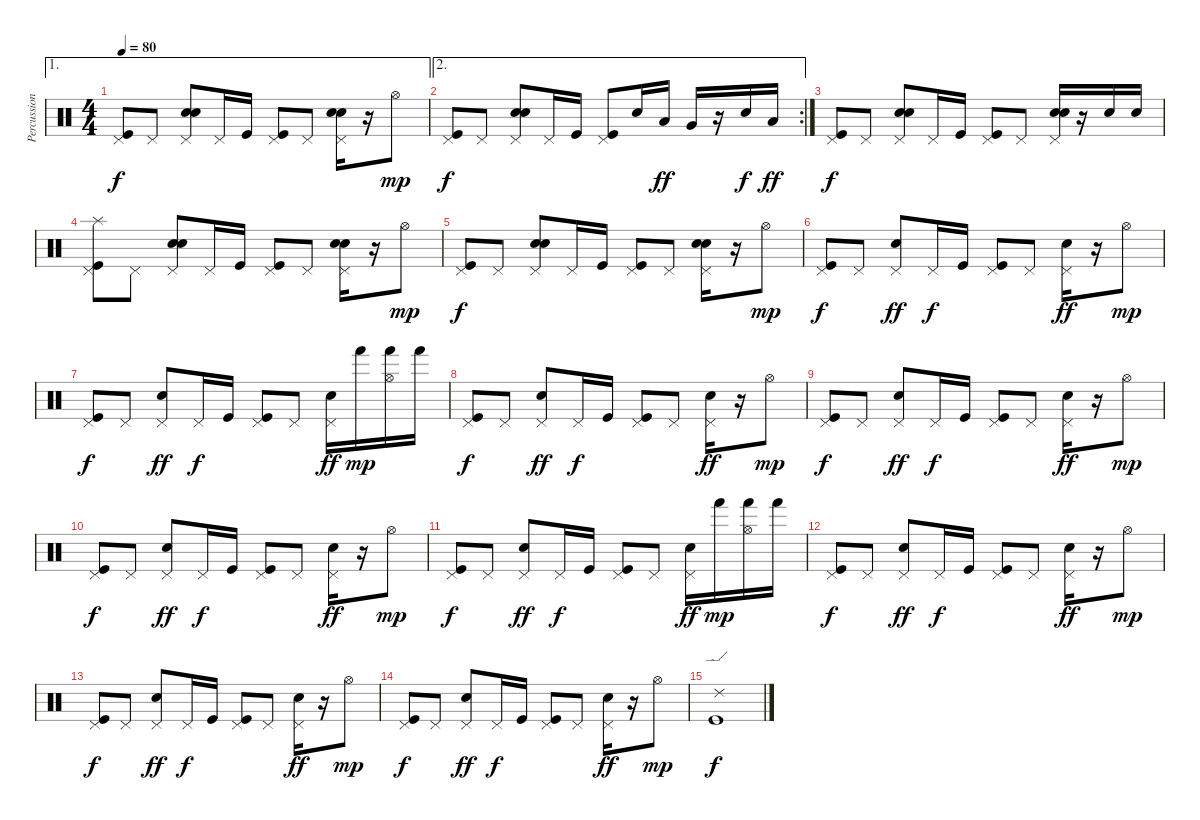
\track ("Percussion" "Percussion") {instrument percussion}
\staff {score}
\articulation defaults
\ae 1
\ts (4 4)
\tempo 80
\clef neutral
\ks c
("Pedal Hi-Hat (hit)" "Kick (hit)").8{dy f} "Pedal Hi-Hat (hit)".8 ("Pedal Hi-Hat (hit)" "Hand Clap (hit)" "Electric Snare (hit)").8 "Pedal Hi-Hat (hit)".16 "Kick (hit)".16 ("Pedal Hi-Hat (hit)" "Kick (hit)").8 "Pedal Hi-Hat (hit)".8 ("Pedal Hi-Hat (hit)" "Hand Clap (hit)" "Electric Snare (hit)").16 r.16 "Hi-Hat (open)".8{dy mp} |
\ae 2
\rc 2
("Pedal Hi-Hat (hit)" "Kick (hit)").8{dy f} "Pedal Hi-Hat (hit)".8 ("Pedal Hi-Hat (hit)" "Hand Clap (hit)" "Electric Snare (hit)").8 "Pedal Hi-Hat (hit)".16 "Kick (hit)".16 ("Pedal Hi-Hat (hit)" "Kick (hit)").8 "Electric Snare (hit)".16 "Low Tom (hit)".16{dy ff} "Very Low Tom (hit)".16 r.16 "Electric Snare (hit)".16{dy f} "Low Tom (hit)".16{dy ff} |
("Pedal Hi-Hat (hit)" "Kick (hit)").8{dy f} "Pedal Hi-Hat (hit)".8 ("Pedal Hi-Hat (hit)" "Hand Clap (hit)" "Electric Snare (hit)").8 "Pedal Hi-Hat (hit)".16 "Kick (hit)".16 ("Pedal Hi-Hat (hit)" "Kick (hit)").8 "Pedal Hi-Hat (hit)".8 ("Pedal Hi-Hat (hit)" "Hand Clap (hit)" "Electric Snare (hit)").16 r.16 "Electric Snare (hit)".16 "Electric Snare (hit)".16 |
("Pedal Hi-Hat (hit)" "Kick (hit)" "Splash (hit)").8 "Pedal Hi-Hat (hit)".8 ("Pedal Hi-Hat (hit)" "Hand Clap (hit)" "Electric Snare (hit)").8 "Pedal Hi-Hat (hit)".16 "Kick (hit)".16 ("Pedal Hi-Hat (hit)" "Kick (hit)").8 "Pedal Hi-Hat (hit)".8 ("Pedal Hi-Hat (hit)" "Hand Clap (hit)" "Electric Snare (hit)").16 r.16 "Hi-Hat (open)".8{dy mp} |
("Pedal Hi-Hat (hit)" "Kick (hit)").8{dy f} "Pedal Hi-Hat (hit)".8 ("Pedal Hi-Hat (hit)" "Hand Clap (hit)" "Electric Snare (hit)").8 "Pedal Hi-Hat (hit)".16 "Kick (hit)".16 ("Pedal Hi-Hat (hit)" "Kick (hit)").8 "Pedal Hi-Hat (hit)".8 ("Pedal Hi-Hat (hit)" "Hand Clap (hit)" "Electric Snare (hit)").16 r.16 "Hi-Hat (open)".8{dy mp} |
("Pedal Hi-Hat (hit)" "Kick (hit)").8{dy f} "Pedal Hi-Hat (hit)".8 ("Pedal Hi-Hat (hit)" "Hand Clap (hit)").8{dy ff} "Pedal Hi-Hat (hit)".16{dy f} "Kick (hit)".16 ("Pedal Hi-Hat (hit)" "Kick (hit)").8 "Pedal Hi-Hat (hit)".8 ("Pedal Hi-Hat (hit)" "Hand Clap (hit)").16{dy ff} r.16 "Hi-Hat (open)".8{dy mp} |
("Pedal Hi-Hat (hit)" "Kick (hit)").8{dy f} "Pedal Hi-Hat (hit)".8 ("Pedal Hi-Hat (hit)" "Hand Clap (hit)").8{dy ff} "Pedal Hi-Hat (hit)".16{dy f} "Kick (hit)".16 ("Pedal Hi-Hat (hit)" "Kick (hit)").8 "Pedal Hi-Hat (hit)".8 ("Pedal Hi-Hat (hit)" "Hand Clap (hit)").16{dy ff} "Hand (hit)".16{dy mp} ("Hand (hit)" "Hi-Hat (open)").16 "Hand (hit)".16 |
("Pedal Hi-Hat (hit)" "Kick (hit)").8{dy f} "Pedal Hi-Hat (hit)".8 ("Pedal Hi-Hat (hit)" "Hand Clap (hit)").8{dy ff} "Pedal Hi-Hat (hit)".16{dy f} "Kick (hit)".16 ("Pedal Hi-Hat (hit)" "Kick (hit)").8 "Pedal Hi-Hat (hit)".8 ("Pedal Hi-Hat (hit)" "Hand Clap (hit)").16{dy ff} r.16 "Hi-Hat (open)".8{dy mp} |
("Pedal Hi-Hat (hit)" "Kick (hit)").8{dy f} "Pedal Hi-Hat (hit)".8 ("Pedal Hi-Hat (hit)" "Hand Clap (hit)").8{dy ff} "Pedal Hi-Hat (hit)".16{dy f} "Kick (hit)".16 ("Pedal Hi-Hat (hit)" "Kick (hit)").8 "Pedal Hi-Hat (hit)".8 ("Pedal Hi-Hat (hit)" "Hand Clap (hit)").16{dy ff} r.16 "Hi-Hat (open)".8{dy mp} |
("Pedal Hi-Hat (hit)" "Kick (hit)").8{dy f} "Pedal Hi-Hat (hit)".8 ("Pedal Hi-Hat (hit)" "Hand Clap (hit)").8{dy ff} "Pedal Hi-Hat (hit)".16{dy f} "Kick (hit)".16 ("Pedal Hi-Hat (hit)" "Kick (hit)").8 "Pedal Hi-Hat (hit)".8 ("Pedal Hi-Hat (hit)" "Hand Clap (hit)").16{dy ff} r.16 "Hi-Hat (open)".8{dy mp} |
("Pedal Hi-Hat (hit)" "Kick (hit)").8{dy f} "Pedal Hi-Hat (hit)".8 ("Pedal Hi-Hat (hit)" "Hand Clap (hit)").8{dy ff} "Pedal Hi-Hat (hit)".16{dy f} "Kick (hit)".16 ("Pedal Hi-Hat (hit)" "Kick (hit)").8 "Pedal Hi-Hat (hit)".8 ("Pedal Hi-Hat (hit)" "Hand Clap (hit)").16{dy ff} "Hand (hit)".16{dy mp} ("Hi-Hat (open)" "Hand (hit)").16 "Hand (hit)".16 |
("Pedal Hi-Hat (hit)" "Kick (hit)").8{dy f} "Pedal Hi-Hat (hit)".8 ("Pedal Hi-Hat (hit)" "Hand Clap (hit)").8{dy ff} "Pedal Hi-Hat (hit)".16{dy f} "Kick (hit)".16 ("Pedal Hi-Hat (hit)" "Kick (hit)").8 "Pedal Hi-Hat (hit)".8 ("Pedal Hi-Hat (hit)" "Hand Clap (hit)").16{dy ff} r.16 "Hi-Hat (open)".8{dy mp} |
("Pedal Hi-Hat (hit)" "Kick (hit)").8{dy f} "Pedal Hi-Hat (hit)".8 ("Pedal Hi-Hat (hit)" "Hand Clap (hit)").8{dy ff} "Pedal Hi-Hat (hit)".16{dy f} "Kick (hit)".16 ("Pedal Hi-Hat (hit)" "Kick (hit)").8 "Pedal Hi-Hat (hit)".8 ("Pedal Hi-Hat (hit)" "Hand Clap (hit)").16{dy ff} r.16 "Hi-Hat (open)".8{dy mp} |
("Pedal Hi-Hat (hit)" "Kick (hit)").8{dy f} "Pedal Hi-Hat (hit)".8 ("Pedal Hi-Hat (hit)" "Hand Clap (hit)").8{dy ff} "Pedal Hi-Hat (hit)".16{dy f} "Kick (hit)".16 ("Pedal Hi-Hat (hit)" "Kick (hit)").8 "Pedal Hi-Hat (hit)".8 ("Pedal Hi-Hat (hit)" "Hand Clap (hit)").16{dy ff} r.16 "Hi-Hat (open)".8{dy mp} |
("Kick (hit)" "Ride (edge) 2").1{dy f}
